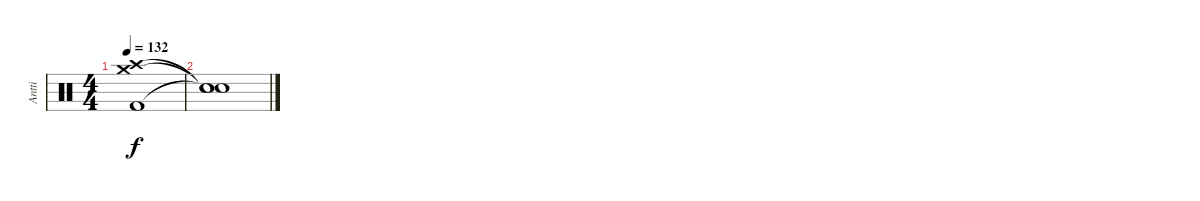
\track ("Antti" "Antti") {instrument percussion}
\staff {score}
\articulation defaults
\ts (4 4)
\tempo 132
\clef neutral
\ks c
("Crash high (hit)" "Crash medium (hit)" "Kick (hit) 2").1{dy f} |
("Snare (hit)"{t} "Snare (hit)"{t} "Snare (hit)"{t}).1
